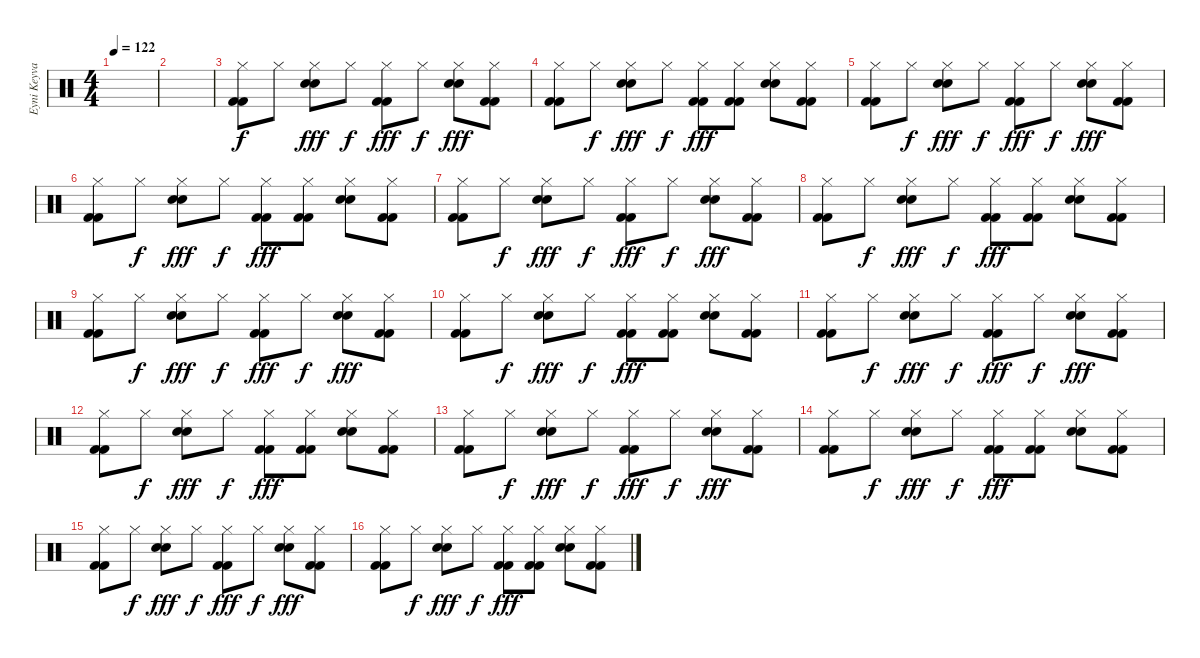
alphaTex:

\track ("Eyni Keyvanshokoh" "Eyni Keyva") {instrument percussion}
\staff {score}
\articulation defaults
\ts (4 4)
\tempo 122
\clef neutral
\ks c
|
|
("Hi-Hat (closed)" "Kick (hit) 2" "Kick (hit) 2").8 "Hi-Hat (closed)".8{dy f} ("Hi-Hat (closed)" "Electric Snare (hit)" "Electric Snare (hit)").8{dy fff} "Hi-Hat (closed)".8{dy f} ("Hi-Hat (closed)" "Kick (hit) 2" "Kick (hit) 2").8{dy fff} "Hi-Hat (closed)".8{dy f} ("Hi-Hat (closed)" "Electric Snare (hit)" "Electric Snare (hit)").8{dy fff} ("Hi-Hat (closed)" "Kick (hit) 2" "Kick (hit) 2").8 |
("Hi-Hat (closed)" "Kick (hit) 2" "Kick (hit) 2").8 "Hi-Hat (closed)".8{dy f} ("Hi-Hat (closed)" "Electric Snare (hit)" "Electric Snare (hit)").8{dy fff} "Hi-Hat (closed)".8{dy f} ("Hi-Hat (closed)" "Kick (hit) 2" "Kick (hit) 2").8{dy fff} ("Hi-Hat (closed)" "Kick (hit) 2" "Kick (hit) 2").8 ("Hi-Hat (closed)" "Electric Snare (hit)" "Electric Snare (hit)").8 ("Hi-Hat (closed)" "Kick (hit) 2" "Kick (hit) 2").8 |
("Hi-Hat (closed)" "Kick (hit) 2" "Kick (hit) 2").8 "Hi-Hat (closed)".8{dy f} ("Hi-Hat (closed)" "Electric Snare (hit)" "Electric Snare (hit)").8{dy fff} "Hi-Hat (closed)".8{dy f} ("Hi-Hat (closed)" "Kick (hit) 2" "Kick (hit) 2").8{dy fff} "Hi-Hat (closed)".8{dy f} ("Hi-Hat (closed)" "Electric Snare (hit)" "Electric Snare (hit)").8{dy fff} ("Hi-Hat (closed)" "Kick (hit) 2" "Kick (hit) 2").8 |
("Hi-Hat (closed)" "Kick (hit) 2" "Kick (hit) 2").8 "Hi-Hat (closed)".8{dy f} ("Hi-Hat (closed)" "Electric Snare (hit)" "Electric Snare (hit)").8{dy fff} "Hi-Hat (closed)".8{dy f} ("Hi-Hat (closed)" "Kick (hit) 2" "Kick (hit) 2").8{dy fff} ("Hi-Hat (closed)" "Kick (hit) 2" "Kick (hit) 2").8 ("Hi-Hat (closed)" "Electric Snare (hit)" "Electric Snare (hit)").8 ("Hi-Hat (closed)" "Kick (hit) 2" "Kick (hit) 2").8 |
("Hi-Hat (closed)" "Kick (hit) 2" "Kick (hit) 2").8 "Hi-Hat (closed)".8{dy f} ("Hi-Hat (closed)" "Electric Snare (hit)" "Electric Snare (hit)").8{dy fff} "Hi-Hat (closed)".8{dy f} ("Hi-Hat (closed)" "Kick (hit) 2" "Kick (hit) 2").8{dy fff} "Hi-Hat (closed)".8{dy f} ("Hi-Hat (closed)" "Electric Snare (hit)" "Electric Snare (hit)").8{dy fff} ("Hi-Hat (closed)" "Kick (hit) 2" "Kick (hit) 2").8 |
("Hi-Hat (closed)" "Kick (hit) 2" "Kick (hit) 2").8 "Hi-Hat (closed)".8{dy f} ("Hi-Hat (closed)" "Electric Snare (hit)" "Electric Snare (hit)").8{dy fff} "Hi-Hat (closed)".8{dy f} ("Hi-Hat (closed)" "Kick (hit) 2" "Kick (hit) 2").8{dy fff} ("Hi-Hat (closed)" "Kick (hit) 2" "Kick (hit) 2").8 ("Hi-Hat (closed)" "Electric Snare (hit)" "Electric Snare (hit)").8 ("Hi-Hat (closed)" "Kick (hit) 2" "Kick (hit) 2").8 |
("Hi-Hat (closed)" "Kick (hit) 2" "Kick (hit) 2").8 "Hi-Hat (closed)".8{dy f} ("Hi-Hat (closed)" "Electric Snare (hit)" "Electric Snare (hit)").8{dy fff} "Hi-Hat (closed)".8{dy f} ("Hi-Hat (closed)" "Kick (hit) 2" "Kick (hit) 2").8{dy fff} "Hi-Hat (closed)".8{dy f} ("Hi-Hat (closed)" "Electric Snare (hit)" "Electric Snare (hit)").8{dy fff} ("Hi-Hat (closed)" "Kick (hit) 2" "Kick (hit) 2").8 |
("Hi-Hat (closed)" "Kick (hit) 2" "Kick (hit) 2").8 "Hi-Hat (closed)".8{dy f} ("Hi-Hat (closed)" "Electric Snare (hit)" "Electric Snare (hit)").8{dy fff} "Hi-Hat (closed)".8{dy f} ("Hi-Hat (closed)" "Kick (hit) 2" "Kick (hit) 2").8{dy fff} ("Hi-Hat (closed)" "Kick (hit) 2" "Kick (hit) 2").8 ("Hi-Hat (closed)" "Electric Snare (hit)" "Electric Snare (hit)").8 ("Hi-Hat (closed)" "Kick (hit) 2" "Kick (hit) 2").8 |
("Hi-Hat (closed)" "Kick (hit) 2" "Kick (hit) 2").8 "Hi-Hat (closed)".8{dy f} ("Hi-Hat (closed)" "Electric Snare (hit)" "Electric Snare (hit)").8{dy fff} "Hi-Hat (closed)".8{dy f} ("Hi-Hat (closed)" "Kick (hit) 2" "Kick (hit) 2").8{dy fff} "Hi-Hat (closed)".8{dy f} ("Hi-Hat (closed)" "Electric Snare (hit)" "Electric Snare (hit)").8{dy fff} ("Hi-Hat (closed)" "Kick (hit) 2" "Kick (hit) 2").8 |
("Hi-Hat (closed)" "Kick (hit) 2" "Kick (hit) 2").8 "Hi-Hat (closed)".8{dy f} ("Hi-Hat (closed)" "Electric Snare (hit)" "Electric Snare (hit)").8{dy fff} "Hi-Hat (closed)".8{dy f} ("Hi-Hat (closed)" "Kick (hit) 2" "Kick (hit) 2").8{dy fff} ("Hi-Hat (closed)" "Kick (hit) 2" "Kick (hit) 2").8 ("Hi-Hat (closed)" "Electric Snare (hit)" "Electric Snare (hit)").8 ("Hi-Hat (closed)" "Kick (hit) 2" "Kick (hit) 2").8 |
("Hi-Hat (closed)" "Kick (hit) 2" "Kick (hit) 2").8 "Hi-Hat (closed)".8{dy f} ("Hi-Hat (closed)" "Electric Snare (hit)" "Electric Snare (hit)").8{dy fff} "Hi-Hat (closed)".8{dy f} ("Hi-Hat (closed)" "Kick (hit) 2" "Kick (hit) 2").8{dy fff} "Hi-Hat (closed)".8{dy f} ("Hi-Hat (closed)" "Electric Snare (hit)" "Electric Snare (hit)").8{dy fff} ("Hi-Hat (closed)" "Kick (hit) 2" "Kick (hit) 2").8 |
("Hi-Hat (closed)" "Kick (hit) 2" "Kick (hit) 2").8 "Hi-Hat (closed)".8{dy f} ("Hi-Hat (closed)" "Electric Snare (hit)" "Electric Snare (hit)").8{dy fff} "Hi-Hat (closed)".8{dy f} ("Hi-Hat (closed)" "Kick (hit) 2" "Kick (hit) 2").8{dy fff} ("Hi-Hat (closed)" "Kick (hit) 2" "Kick (hit) 2").8 ("Hi-Hat (closed)" "Electric Snare (hit)" "Electric Snare (hit)").8 ("Hi-Hat (closed)" "Kick (hit) 2" "Kick (hit) 2").8 |
("Hi-Hat (closed)" "Kick (hit) 2" "Kick (hit) 2").8 "Hi-Hat (closed)".8{dy f} ("Hi-Hat (closed)" "Electric Snare (hit)" "Electric Snare (hit)").8{dy fff} "Hi-Hat (closed)".8{dy f} ("Hi-Hat (closed)" "Kick (hit) 2" "Kick (hit) 2").8{dy fff} "Hi-Hat (closed)".8{dy f} ("Hi-Hat (closed)" "Electric Snare (hit)" "Electric Snare (hit)").8{dy fff} ("Hi-Hat (closed)" "Kick (hit) 2" "Kick (hit) 2").8 |
("Hi-Hat (closed)" "Kick (hit) 2" "Kick (hit) 2").8 "Hi-Hat (closed)".8{dy f} ("Hi-Hat (closed)" "Electric Snare (hit)" "Electric Snare (hit)").8{dy fff} "Hi-Hat (closed)".8{dy f} ("Hi-Hat (closed)" "Kick (hit) 2" "Kick (hit) 2").8{dy fff} ("Hi-Hat (closed)" "Kick (hit) 2" "Kick (hit) 2").8 ("Hi-Hat (closed)" "Electric Snare (hit)" "Electric Snare (hit)").8 ("Hi-Hat (closed)" "Kick (hit) 2" "Kick (hit) 2").8
